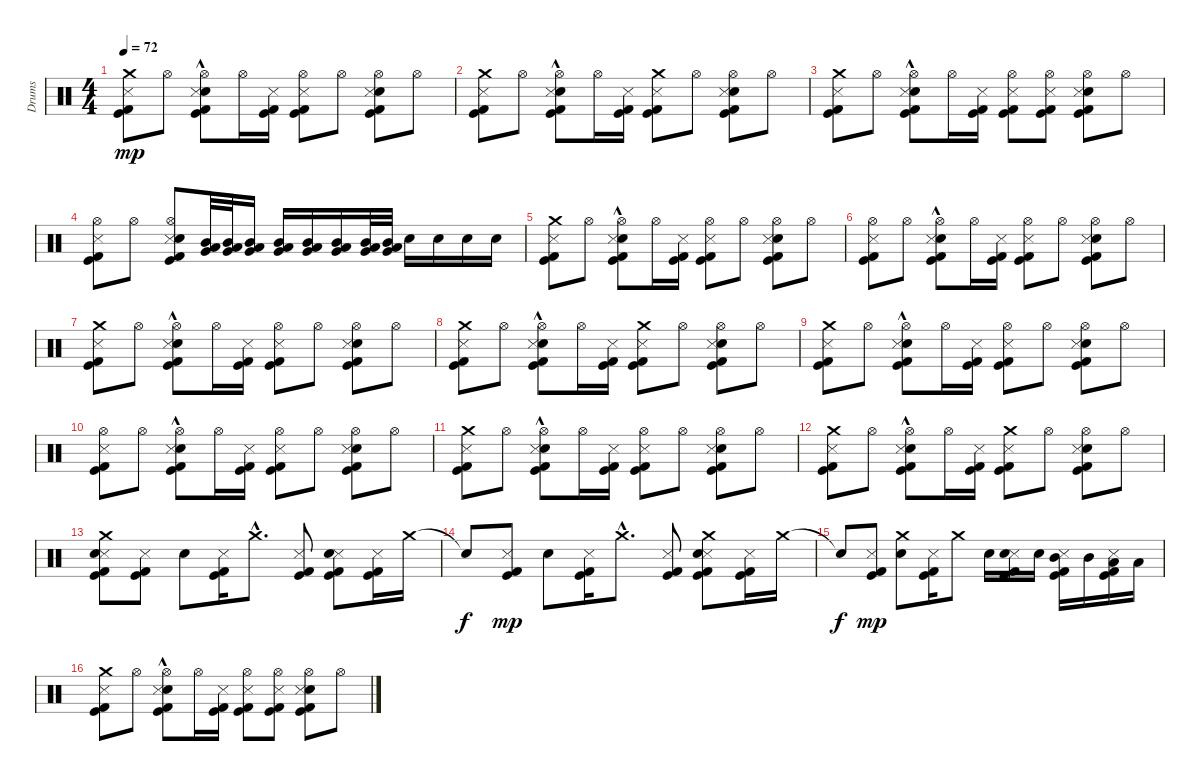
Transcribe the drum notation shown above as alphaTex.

\track ("Drums" "Drums") {instrument percussion}
\staff {score}
\articulation defaults
\ts (4 4)
\tempo 72
\clef neutral
\ks c
("Crash medium (hit)" "Metronome (hit)" "Kick (hit)" "Kick (hit) 2").8{dy mp} "Hi-Hat (open)".8 ("Snare (hit) 2" "Hi-Hat (open)" "Metronome (hit)"{hac} "Kick (hit)"{hac} "Kick (hit) 2"{hac}).8 "Hi-Hat (open)".16 ("Metronome (hit)" "Kick (hit)" "Kick (hit) 2").16 ("Hi-Hat (open)" "Metronome (hit)" "Kick (hit)" "Kick (hit) 2").8 "Hi-Hat (open)".8 ("Snare (hit) 2" "Hi-Hat (open)" "Metronome (hit)" "Kick (hit)" "Kick (hit) 2").8 "Hi-Hat (open)".8 |
("Crash medium (hit)" "Metronome (hit)" "Kick (hit)" "Kick (hit) 2").8 "Hi-Hat (open)".8 ("Snare (hit) 2" "Hi-Hat (open)" "Metronome (hit)"{hac} "Kick (hit)"{hac} "Kick (hit) 2"{hac}).8 "Hi-Hat (open)".16 ("Metronome (hit)" "Kick (hit)" "Kick (hit) 2").16 ("Crash medium (hit)" "Metronome (hit)" "Kick (hit)" "Kick (hit) 2").8 "Hi-Hat (open)".8 ("Snare (hit) 2" "Hi-Hat (open)" "Metronome (hit)" "Kick (hit)" "Kick (hit) 2").8 "Hi-Hat (open)".8 |
("Crash medium (hit)" "Metronome (hit)" "Kick (hit)" "Kick (hit) 2").8 "Hi-Hat (open)".8 ("Snare (hit) 2" "Hi-Hat (open)" "Metronome (hit)"{hac} "Kick (hit)"{hac} "Kick (hit) 2"{hac}).8 "Hi-Hat (open)".16 ("Metronome (hit)" "Kick (hit)" "Kick (hit) 2").16 ("Hi-Hat (open)" "Metronome (hit)" "Kick (hit)" "Kick (hit) 2").8 ("Hi-Hat (open)" "Metronome (hit)" "Kick (hit)" "Kick (hit) 2").8 ("Snare (hit) 2" "Hi-Hat (open)" "Metronome (hit)" "Kick (hit)" "Kick (hit) 2").8 "Hi-Hat (open)".8 |
("Metronome (hit)" "Kick (hit)" "Kick (hit) 2" "Hi-Hat (open)").8 "Hi-Hat (open)".8 ("Metronome (hit)" "Kick (hit)" "Kick (hit) 2" "Snare (hit) 2" "Hi-Hat (open)").8 ("Very Low Tom (hit)" "Low Tom (hit)" "Mid Tom (hit)").32 ("Very Low Tom (hit)" "Low Tom (hit)" "Mid Tom (hit)").32 ("Very Low Tom (hit)" "Low Tom (hit)" "Mid Tom (hit)").16 ("Very Low Tom (hit)" "Low Tom (hit)" "Mid Tom (hit)").16 ("Very Low Tom (hit)" "Low Tom (hit)" "Mid Tom (hit)").16 ("Very Low Tom (hit)" "Low Tom (hit)" "Mid Tom (hit)").16 ("Very Low Tom (hit)" "Low Tom (hit)" "Mid Tom (hit)").32 ("Very Low Tom (hit)" "Low Tom (hit)" "Mid Tom (hit)").32 "Snare (hit) 2".16 "Snare (hit) 2".16 "Snare (hit) 2".16 "Snare (hit) 2".16 |
("Crash medium (hit)" "Metronome (hit)" "Kick (hit)" "Kick (hit) 2").8 "Hi-Hat (open)".8 ("Snare (hit) 2" "Hi-Hat (open)" "Metronome (hit)"{hac} "Kick (hit)"{hac} "Kick (hit) 2"{hac}).8 "Hi-Hat (open)".16 ("Metronome (hit)" "Kick (hit)" "Kick (hit) 2").16 ("Hi-Hat (open)" "Metronome (hit)" "Kick (hit)" "Kick (hit) 2").8 "Hi-Hat (open)".8 ("Snare (hit) 2" "Hi-Hat (open)" "Metronome (hit)" "Kick (hit)" "Kick (hit) 2").8 "Hi-Hat (open)".8 |
("Hi-Hat (open)" "Metronome (hit)" "Kick (hit)" "Kick (hit) 2").8 "Hi-Hat (open)".8 ("Snare (hit) 2" "Hi-Hat (open)" "Metronome (hit)"{hac} "Kick (hit)"{hac} "Kick (hit) 2"{hac}).8 "Hi-Hat (open)".16 ("Metronome (hit)" "Kick (hit)" "Kick (hit) 2").16 ("Hi-Hat (open)" "Metronome (hit)" "Kick (hit)" "Kick (hit) 2").8 "Hi-Hat (open)".8 ("Snare (hit) 2" "Hi-Hat (open)" "Metronome (hit)" "Kick (hit)" "Kick (hit) 2").8 "Hi-Hat (open)".8 |
("Crash medium (hit)" "Metronome (hit)" "Kick (hit)" "Kick (hit) 2").8 "Hi-Hat (open)".8 ("Snare (hit) 2" "Hi-Hat (open)" "Metronome (hit)"{hac} "Kick (hit)"{hac} "Kick (hit) 2"{hac}).8 "Hi-Hat (open)".16 ("Metronome (hit)" "Kick (hit)" "Kick (hit) 2").16 ("Hi-Hat (open)" "Metronome (hit)" "Kick (hit)" "Kick (hit) 2").8 "Hi-Hat (open)".8 ("Snare (hit) 2" "Hi-Hat (open)" "Metronome (hit)" "Kick (hit)" "Kick (hit) 2").8 "Hi-Hat (open)".8 |
("Crash medium (hit)" "Metronome (hit)" "Kick (hit)" "Kick (hit) 2").8 "Hi-Hat (open)".8 ("Snare (hit) 2" "Hi-Hat (open)" "Metronome (hit)"{hac} "Kick (hit)"{hac} "Kick (hit) 2"{hac}).8 "Hi-Hat (open)".16 ("Metronome (hit)" "Kick (hit)" "Kick (hit) 2").16 ("Crash medium (hit)" "Metronome (hit)" "Kick (hit)" "Kick (hit) 2").8 "Hi-Hat (open)".8 ("Snare (hit) 2" "Hi-Hat (open)" "Metronome (hit)" "Kick (hit)" "Kick (hit) 2").8 "Hi-Hat (open)".8 |
("Crash medium (hit)" "Metronome (hit)" "Kick (hit)" "Kick (hit) 2").8 "Hi-Hat (open)".8 ("Snare (hit) 2" "Hi-Hat (open)" "Metronome (hit)"{hac} "Kick (hit)"{hac} "Kick (hit) 2"{hac}).8 "Hi-Hat (open)".16 ("Metronome (hit)" "Kick (hit)" "Kick (hit) 2").16 ("Hi-Hat (open)" "Metronome (hit)" "Kick (hit)" "Kick (hit) 2").8 "Hi-Hat (open)".8 ("Snare (hit) 2" "Hi-Hat (open)" "Metronome (hit)" "Kick (hit)" "Kick (hit) 2").8 "Hi-Hat (open)".8 |
("Hi-Hat (open)" "Metronome (hit)" "Kick (hit)" "Kick (hit) 2").8 "Hi-Hat (open)".8 ("Snare (hit) 2" "Hi-Hat (open)" "Metronome (hit)"{hac} "Kick (hit)"{hac} "Kick (hit) 2"{hac}).8 "Hi-Hat (open)".16 ("Metronome (hit)" "Kick (hit)" "Kick (hit) 2").16 ("Hi-Hat (open)" "Metronome (hit)" "Kick (hit)" "Kick (hit) 2").8 "Hi-Hat (open)".8 ("Snare (hit) 2" "Hi-Hat (open)" "Metronome (hit)" "Kick (hit)" "Kick (hit) 2").8 "Hi-Hat (open)".8 |
("Crash medium (hit)" "Metronome (hit)" "Kick (hit)" "Kick (hit) 2").8 "Hi-Hat (open)".8 ("Snare (hit) 2" "Hi-Hat (open)" "Metronome (hit)"{hac} "Kick (hit)"{hac} "Kick (hit) 2"{hac}).8 "Hi-Hat (open)".16 ("Metronome (hit)" "Kick (hit)" "Kick (hit) 2").16 ("Hi-Hat (open)" "Metronome (hit)" "Kick (hit)" "Kick (hit) 2").8 "Hi-Hat (open)".8 ("Snare (hit) 2" "Hi-Hat (open)" "Metronome (hit)" "Kick (hit)" "Kick (hit) 2").8 "Hi-Hat (open)".8 |
("Crash medium (hit)" "Metronome (hit)" "Kick (hit)" "Kick (hit) 2").8 "Hi-Hat (open)".8 ("Snare (hit) 2" "Hi-Hat (open)" "Metronome (hit)"{hac} "Kick (hit)"{hac} "Kick (hit) 2"{hac}).8 "Hi-Hat (open)".16 ("Metronome (hit)" "Kick (hit)" "Kick (hit) 2").16 ("Crash medium (hit)" "Metronome (hit)" "Kick (hit)" "Kick (hit) 2").8 "Hi-Hat (open)".8 ("Snare (hit) 2" "Hi-Hat (open)" "Metronome (hit)" "Kick (hit)" "Kick (hit) 2").8 "Hi-Hat (open)".8 |
("Metronome (hit)" "Kick (hit)" "Kick (hit) 2" "Snare (hit) 2" "Crash medium (hit)").8 ("Metronome (hit)" "Kick (hit)" "Kick (hit) 2").8 "Snare (hit) 2".8 ("Metronome (hit)" "Kick (hit)" "Kick (hit) 2").16 "Crash medium (hit)"{hac}.8{d} ("Metronome (hit)" "Kick (hit)" "Kick (hit) 2").8 ("Metronome (hit)" "Kick (hit)" "Kick (hit) 2" "Snare (hit) 2").8 ("Metronome (hit)" "Kick (hit)" "Kick (hit) 2").16 "Crash medium (hit)".16 |
"Snare (hit)"{t}.8{dy f} ("Metronome (hit)" "Kick (hit)" "Kick (hit) 2").8{dy mp} "Snare (hit) 2".8 ("Metronome (hit)" "Kick (hit)" "Kick (hit) 2").16 "Crash medium (hit)"{hac}.8{d} ("Metronome (hit)" "Kick (hit)" "Kick (hit) 2").8 ("Metronome (hit)" "Kick (hit)" "Kick (hit) 2" "Snare (hit) 2" "Crash medium (hit)").8 ("Metronome (hit)" "Kick (hit)" "Kick (hit) 2").16 "Crash medium (hit)".16 |
"Snare (hit)"{t}.8{dy f} ("Metronome (hit)" "Kick (hit)" "Kick (hit) 2").8{dy mp} ("Snare (hit) 2" "Crash medium (hit)").8 ("Metronome (hit)" "Kick (hit)" "Kick (hit) 2").16 "Crash medium (hit)".8 "Snare (hit) 2".16 ("Metronome (hit)" "Kick (hit)" "Kick (hit) 2" "Snare (hit) 2").16 "Snare (hit) 2".16 ("Metronome (hit)" "Kick (hit)" "Kick (hit) 2" "Mid Tom (hit)").16 "Mid Tom (hit)".16 ("Metronome (hit)" "Kick (hit)" "Kick (hit) 2" "Low Tom (hit)").16 "Low Tom (hit)".16 |
("Crash medium (hit)" "Metronome (hit)" "Kick (hit)" "Kick (hit) 2").8 "Hi-Hat (open)".8 ("Snare (hit) 2" "Hi-Hat (open)" "Metronome (hit)"{hac} "Kick (hit)"{hac} "Kick (hit) 2"{hac}).8 "Hi-Hat (open)".16 ("Metronome (hit)" "Kick (hit)" "Kick (hit) 2").16 ("Hi-Hat (open)" "Metronome (hit)" "Kick (hit)" "Kick (hit) 2").8 ("Hi-Hat (open)" "Metronome (hit)" "Kick (hit)" "Kick (hit) 2").8 ("Snare (hit) 2" "Hi-Hat (open)" "Metronome (hit)" "Kick (hit)" "Kick (hit) 2").8 "Hi-Hat (open)".8
